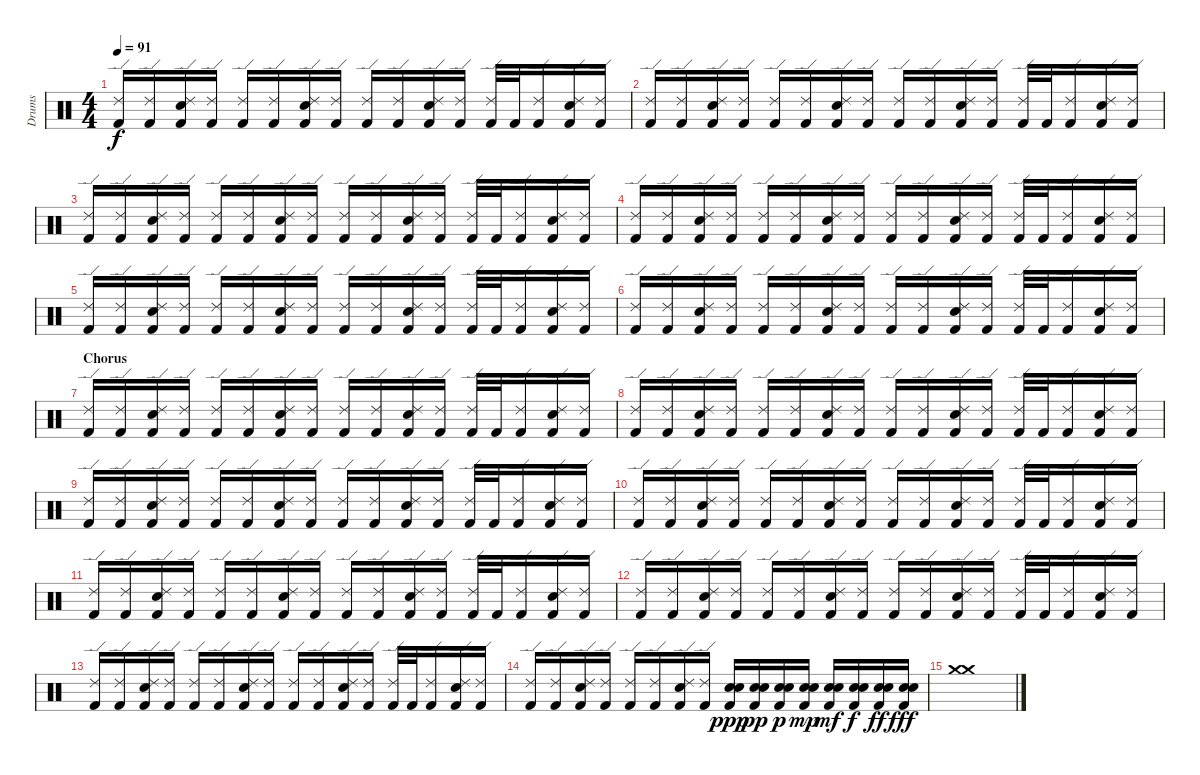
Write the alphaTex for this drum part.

\track ("Drums" "Drums") {instrument percussion}
\staff {score}
\articulation defaults
\ts (4 4)
\tempo 91
\clef neutral
\ks c
("Ride (edge) 2" "Kick (hit) 2").16{dy f} ("Ride (edge) 2" "Kick (hit) 2").16 ("Ride (edge) 2" "Snare (hit) 2" "Kick (hit) 2").16 ("Ride (edge) 2" "Kick (hit) 2").16 ("Ride (edge) 2" "Kick (hit) 2").16 ("Ride (edge) 2" "Kick (hit) 2").16 ("Ride (edge) 2" "Snare (hit) 2" "Kick (hit) 2").16 ("Ride (edge) 2" "Kick (hit) 2").16 ("Ride (edge) 2" "Kick (hit) 2").16 ("Ride (edge) 2" "Kick (hit) 2").16 ("Ride (edge) 2" "Snare (hit) 2" "Kick (hit) 2").16 ("Ride (edge) 2" "Kick (hit) 2").16 ("Ride (edge) 2" "Kick (hit) 2").32 "Kick (hit) 2".32 ("Ride (edge) 2" "Kick (hit) 2").16 ("Ride (edge) 2" "Snare (hit) 2" "Kick (hit) 2").16 ("Ride (edge) 2" "Kick (hit) 2").16 |
("Ride (edge) 2" "Kick (hit) 2").16 ("Ride (edge) 2" "Kick (hit) 2").16 ("Ride (edge) 2" "Snare (hit) 2" "Kick (hit) 2").16 ("Ride (edge) 2" "Kick (hit) 2").16 ("Ride (edge) 2" "Kick (hit) 2").16 ("Ride (edge) 2" "Kick (hit) 2").16 ("Ride (edge) 2" "Snare (hit) 2" "Kick (hit) 2").16 ("Ride (edge) 2" "Kick (hit) 2").16 ("Ride (edge) 2" "Kick (hit) 2").16 ("Ride (edge) 2" "Kick (hit) 2").16 ("Ride (edge) 2" "Snare (hit) 2" "Kick (hit) 2").16 ("Ride (edge) 2" "Kick (hit) 2").16 ("Ride (edge) 2" "Kick (hit) 2").32 "Kick (hit) 2".32 ("Ride (edge) 2" "Kick (hit) 2").16 ("Ride (edge) 2" "Snare (hit) 2" "Kick (hit) 2").16 ("Ride (edge) 2" "Kick (hit) 2").16 |
("Ride (edge) 2" "Kick (hit) 2").16 ("Ride (edge) 2" "Kick (hit) 2").16 ("Ride (edge) 2" "Snare (hit) 2" "Kick (hit) 2").16 ("Ride (edge) 2" "Kick (hit) 2").16 ("Ride (edge) 2" "Kick (hit) 2").16 ("Ride (edge) 2" "Kick (hit) 2").16 ("Ride (edge) 2" "Snare (hit) 2" "Kick (hit) 2").16 ("Ride (edge) 2" "Kick (hit) 2").16 ("Ride (edge) 2" "Kick (hit) 2").16 ("Ride (edge) 2" "Kick (hit) 2").16 ("Ride (edge) 2" "Snare (hit) 2" "Kick (hit) 2").16 ("Ride (edge) 2" "Kick (hit) 2").16 ("Ride (edge) 2" "Kick (hit) 2").32 "Kick (hit) 2".32 ("Ride (edge) 2" "Kick (hit) 2").16 ("Ride (edge) 2" "Snare (hit) 2" "Kick (hit) 2").16 ("Ride (edge) 2" "Kick (hit) 2").16 |
("Ride (edge) 2" "Kick (hit) 2").16 ("Ride (edge) 2" "Kick (hit) 2").16 ("Ride (edge) 2" "Snare (hit) 2" "Kick (hit) 2").16 ("Ride (edge) 2" "Kick (hit) 2").16 ("Ride (edge) 2" "Kick (hit) 2").16 ("Ride (edge) 2" "Kick (hit) 2").16 ("Ride (edge) 2" "Snare (hit) 2" "Kick (hit) 2").16 ("Ride (edge) 2" "Kick (hit) 2").16 ("Ride (edge) 2" "Kick (hit) 2").16 ("Ride (edge) 2" "Kick (hit) 2").16 ("Ride (edge) 2" "Snare (hit) 2" "Kick (hit) 2").16 ("Ride (edge) 2" "Kick (hit) 2").16 ("Ride (edge) 2" "Kick (hit) 2").32 "Kick (hit) 2".32 ("Ride (edge) 2" "Kick (hit) 2").16 ("Ride (edge) 2" "Snare (hit) 2" "Kick (hit) 2").16 ("Ride (edge) 2" "Kick (hit) 2").16 |
("Ride (edge) 2" "Kick (hit) 2").16 ("Ride (edge) 2" "Kick (hit) 2").16 ("Ride (edge) 2" "Snare (hit) 2" "Kick (hit) 2").16 ("Ride (edge) 2" "Kick (hit) 2").16 ("Ride (edge) 2" "Kick (hit) 2").16 ("Ride (edge) 2" "Kick (hit) 2").16 ("Ride (edge) 2" "Snare (hit) 2" "Kick (hit) 2").16 ("Ride (edge) 2" "Kick (hit) 2").16 ("Ride (edge) 2" "Kick (hit) 2").16 ("Ride (edge) 2" "Kick (hit) 2").16 ("Ride (edge) 2" "Snare (hit) 2" "Kick (hit) 2").16 ("Ride (edge) 2" "Kick (hit) 2").16 ("Ride (edge) 2" "Kick (hit) 2").32 "Kick (hit) 2".32 ("Ride (edge) 2" "Kick (hit) 2").16 ("Ride (edge) 2" "Snare (hit) 2" "Kick (hit) 2").16 ("Ride (edge) 2" "Kick (hit) 2").16 |
("Ride (edge) 2" "Kick (hit) 2").16 ("Ride (edge) 2" "Kick (hit) 2").16 ("Ride (edge) 2" "Snare (hit) 2" "Kick (hit) 2").16 ("Ride (edge) 2" "Kick (hit) 2").16 ("Ride (edge) 2" "Kick (hit) 2").16 ("Ride (edge) 2" "Kick (hit) 2").16 ("Ride (edge) 2" "Snare (hit) 2" "Kick (hit) 2").16 ("Ride (edge) 2" "Kick (hit) 2").16 ("Ride (edge) 2" "Kick (hit) 2").16 ("Ride (edge) 2" "Kick (hit) 2").16 ("Ride (edge) 2" "Snare (hit) 2" "Kick (hit) 2").16 ("Ride (edge) 2" "Kick (hit) 2").16 ("Ride (edge) 2" "Kick (hit) 2").32 "Kick (hit) 2".32 ("Ride (edge) 2" "Kick (hit) 2").16 ("Ride (edge) 2" "Snare (hit) 2" "Kick (hit) 2").16 ("Ride (edge) 2" "Kick (hit) 2").16 |
\section ("" "Chorus")
("Ride (edge) 2" "Kick (hit) 2").16 ("Ride (edge) 2" "Kick (hit) 2").16 ("Ride (edge) 2" "Snare (hit) 2" "Kick (hit) 2").16 ("Ride (edge) 2" "Kick (hit) 2").16 ("Ride (edge) 2" "Kick (hit) 2").16 ("Ride (edge) 2" "Kick (hit) 2").16 ("Ride (edge) 2" "Snare (hit) 2" "Kick (hit) 2").16 ("Ride (edge) 2" "Kick (hit) 2").16 ("Ride (edge) 2" "Kick (hit) 2").16 ("Ride (edge) 2" "Kick (hit) 2").16 ("Ride (edge) 2" "Snare (hit) 2" "Kick (hit) 2").16 ("Ride (edge) 2" "Kick (hit) 2").16 ("Ride (edge) 2" "Kick (hit) 2").32 "Kick (hit) 2".32 ("Ride (edge) 2" "Kick (hit) 2").16 ("Ride (edge) 2" "Snare (hit) 2" "Kick (hit) 2").16 ("Ride (edge) 2" "Kick (hit) 2").16 |
("Ride (edge) 2" "Kick (hit) 2").16 ("Ride (edge) 2" "Kick (hit) 2").16 ("Ride (edge) 2" "Snare (hit) 2" "Kick (hit) 2").16 ("Ride (edge) 2" "Kick (hit) 2").16 ("Ride (edge) 2" "Kick (hit) 2").16 ("Ride (edge) 2" "Kick (hit) 2").16 ("Ride (edge) 2" "Snare (hit) 2" "Kick (hit) 2").16 ("Ride (edge) 2" "Kick (hit) 2").16 ("Ride (edge) 2" "Kick (hit) 2").16 ("Ride (edge) 2" "Kick (hit) 2").16 ("Ride (edge) 2" "Snare (hit) 2" "Kick (hit) 2").16 ("Ride (edge) 2" "Kick (hit) 2").16 ("Ride (edge) 2" "Kick (hit) 2").32 "Kick (hit) 2".32 ("Ride (edge) 2" "Kick (hit) 2").16 ("Ride (edge) 2" "Snare (hit) 2" "Kick (hit) 2").16 ("Ride (edge) 2" "Kick (hit) 2").16 |
("Ride (edge) 2" "Kick (hit) 2").16 ("Ride (edge) 2" "Kick (hit) 2").16 ("Ride (edge) 2" "Snare (hit) 2" "Kick (hit) 2").16 ("Ride (edge) 2" "Kick (hit) 2").16 ("Ride (edge) 2" "Kick (hit) 2").16 ("Ride (edge) 2" "Kick (hit) 2").16 ("Ride (edge) 2" "Snare (hit) 2" "Kick (hit) 2").16 ("Ride (edge) 2" "Kick (hit) 2").16 ("Ride (edge) 2" "Kick (hit) 2").16 ("Ride (edge) 2" "Kick (hit) 2").16 ("Ride (edge) 2" "Snare (hit) 2" "Kick (hit) 2").16 ("Ride (edge) 2" "Kick (hit) 2").16 ("Ride (edge) 2" "Kick (hit) 2").32 "Kick (hit) 2".32 ("Ride (edge) 2" "Kick (hit) 2").16 ("Ride (edge) 2" "Snare (hit) 2" "Kick (hit) 2").16 ("Ride (edge) 2" "Kick (hit) 2").16 |
("Ride (edge) 2" "Kick (hit) 2").16 ("Ride (edge) 2" "Kick (hit) 2").16 ("Ride (edge) 2" "Snare (hit) 2" "Kick (hit) 2").16 ("Ride (edge) 2" "Kick (hit) 2").16 ("Ride (edge) 2" "Kick (hit) 2").16 ("Ride (edge) 2" "Kick (hit) 2").16 ("Ride (edge) 2" "Snare (hit) 2" "Kick (hit) 2").16 ("Ride (edge) 2" "Kick (hit) 2").16 ("Ride (edge) 2" "Kick (hit) 2").16 ("Ride (edge) 2" "Kick (hit) 2").16 ("Ride (edge) 2" "Snare (hit) 2" "Kick (hit) 2").16 ("Ride (edge) 2" "Kick (hit) 2").16 ("Ride (edge) 2" "Kick (hit) 2").32 "Kick (hit) 2".32 ("Ride (edge) 2" "Kick (hit) 2").16 ("Ride (edge) 2" "Snare (hit) 2" "Kick (hit) 2").16 ("Ride (edge) 2" "Kick (hit) 2").16 |
("Ride (edge) 2" "Kick (hit) 2").16 ("Ride (edge) 2" "Kick (hit) 2").16 ("Ride (edge) 2" "Snare (hit) 2" "Kick (hit) 2").16 ("Ride (edge) 2" "Kick (hit) 2").16 ("Ride (edge) 2" "Kick (hit) 2").16 ("Ride (edge) 2" "Kick (hit) 2").16 ("Ride (edge) 2" "Snare (hit) 2" "Kick (hit) 2").16 ("Ride (edge) 2" "Kick (hit) 2").16 ("Ride (edge) 2" "Kick (hit) 2").16 ("Ride (edge) 2" "Kick (hit) 2").16 ("Ride (edge) 2" "Snare (hit) 2" "Kick (hit) 2").16 ("Ride (edge) 2" "Kick (hit) 2").16 ("Ride (edge) 2" "Kick (hit) 2").32 "Kick (hit) 2".32 ("Ride (edge) 2" "Kick (hit) 2").16 ("Ride (edge) 2" "Snare (hit) 2" "Kick (hit) 2").16 ("Ride (edge) 2" "Kick (hit) 2").16 |
("Ride (edge) 2" "Kick (hit) 2").16 ("Ride (edge) 2" "Kick (hit) 2").16 ("Ride (edge) 2" "Snare (hit) 2" "Kick (hit) 2").16 ("Ride (edge) 2" "Kick (hit) 2").16 ("Ride (edge) 2" "Kick (hit) 2").16 ("Ride (edge) 2" "Kick (hit) 2").16 ("Ride (edge) 2" "Snare (hit) 2" "Kick (hit) 2").16 ("Ride (edge) 2" "Kick (hit) 2").16 ("Ride (edge) 2" "Kick (hit) 2").16 ("Ride (edge) 2" "Kick (hit) 2").16 ("Ride (edge) 2" "Snare (hit) 2" "Kick (hit) 2").16 ("Ride (edge) 2" "Kick (hit) 2").16 ("Ride (edge) 2" "Kick (hit) 2").32 "Kick (hit) 2".32 ("Ride (edge) 2" "Kick (hit) 2").16 ("Ride (edge) 2" "Snare (hit) 2" "Kick (hit) 2").16 ("Ride (edge) 2" "Kick (hit) 2").16 |
("Ride (edge) 2" "Kick (hit) 2").16 ("Ride (edge) 2" "Kick (hit) 2").16 ("Ride (edge) 2" "Snare (hit) 2" "Kick (hit) 2").16 ("Ride (edge) 2" "Kick (hit) 2").16 ("Ride (edge) 2" "Kick (hit) 2").16 ("Ride (edge) 2" "Kick (hit) 2").16 ("Ride (edge) 2" "Snare (hit) 2" "Kick (hit) 2").16 ("Ride (edge) 2" "Kick (hit) 2").16 ("Ride (edge) 2" "Kick (hit) 2").16 ("Ride (edge) 2" "Kick (hit) 2").16 ("Ride (edge) 2" "Snare (hit) 2" "Kick (hit) 2").16 ("Ride (edge) 2" "Kick (hit) 2").16 ("Ride (edge) 2" "Kick (hit) 2").32 "Kick (hit) 2".32 ("Ride (edge) 2" "Kick (hit) 2").16 ("Ride (edge) 2" "Snare (hit) 2" "Kick (hit) 2").16 ("Ride (edge) 2" "Kick (hit) 2").16 |
("Ride (edge) 2" "Kick (hit) 2").16 ("Ride (edge) 2" "Kick (hit) 2").16 ("Ride (edge) 2" "Snare (hit) 2" "Kick (hit) 2").16 ("Ride (edge) 2" "Kick (hit) 2").16 ("Ride (edge) 2" "Kick (hit) 2").16 ("Ride (edge) 2" "Kick (hit) 2").16 ("Ride (edge) 2" "Snare (hit) 2" "Kick (hit) 2").16 ("Ride (edge) 2" "Kick (hit) 2").16 ("Snare (hit) 2" "Snare (hit) 2" "Kick (hit) 2").16{dy ppp} ("Snare (hit) 2" "Snare (hit) 2" "Kick (hit) 2").16{dy pp} ("Snare (hit) 2" "Snare (hit) 2" "Kick (hit) 2").16{dy p} ("Snare (hit) 2" "Snare (hit) 2" "Kick (hit) 2").16{dy mp} ("Snare (hit) 2" "Snare (hit) 2" "Kick (hit) 2").16{dy mf} ("Snare (hit) 2" "Snare (hit) 2" "Kick (hit) 2").16{dy f} ("Snare (hit) 2" "Snare (hit) 2" "Kick (hit) 2").16{dy ff} ("Snare (hit) 2" "Snare (hit) 2" "Kick (hit) 2").16{dy fff} |
("Crash medium (hit)" "Crash medium (hit)").1
